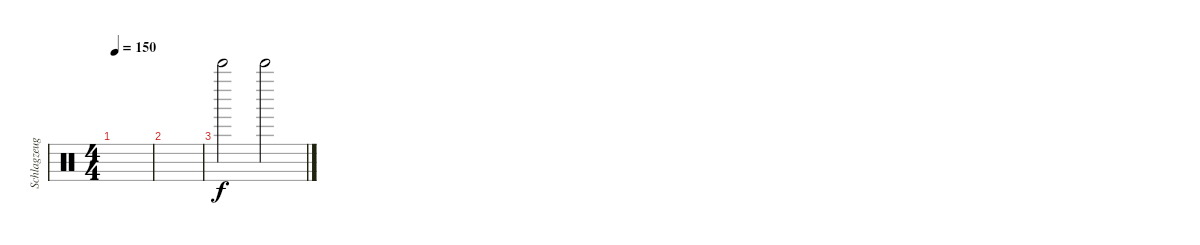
\track ("Schlagzeug" "Schlagzeug") {instrument percussion}
\staff {score}
\articulation defaults
\ts (4 4)
\tempo 150
\clef neutral
\ks c
|
|
"Bell Tree (hit)".2 "Bell Tree (hit)".2
